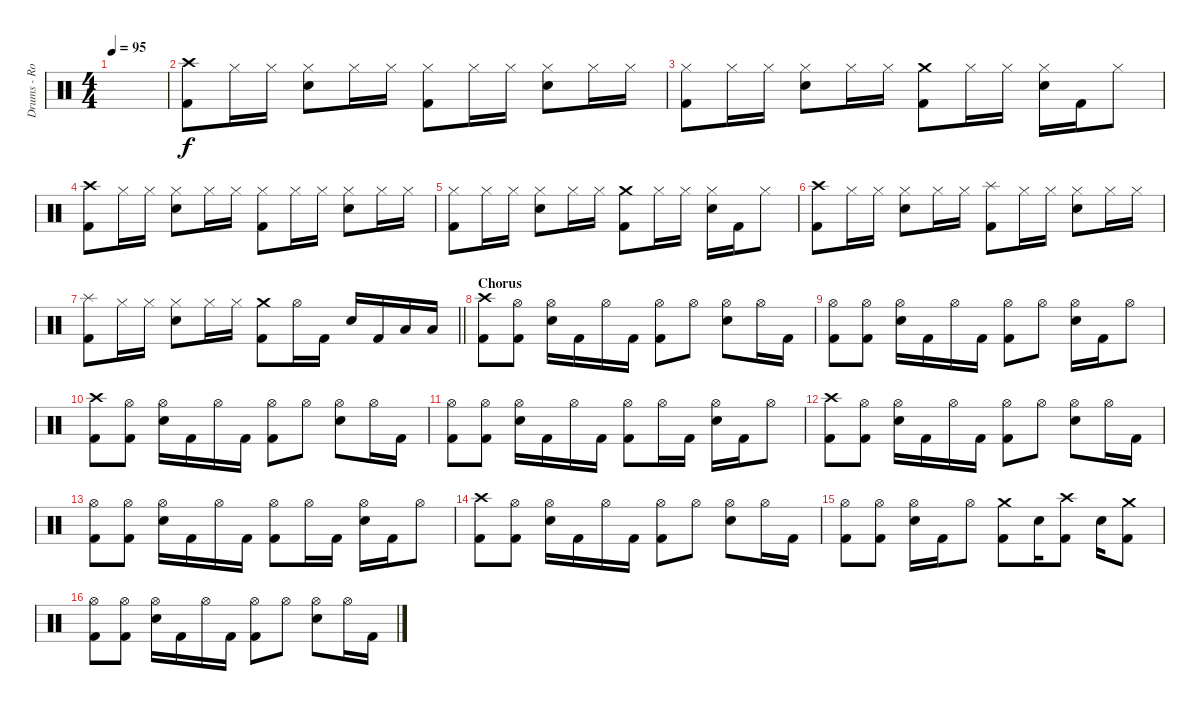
\track ("Drums - Rob Bourdon" "Drums - Ro") {instrument percussion}
\staff {score}
\articulation defaults
\ts (4 4)
\tempo 95
\clef neutral
\ks c
|
("Crash high (hit)" "Kick (hit) 2").8 "Hi-Hat (closed)".16 "Hi-Hat (closed)".16 ("Hi-Hat (closed)" "Snare (hit) 2").8 "Hi-Hat (closed)".16 "Hi-Hat (closed)".16 ("Hi-Hat (closed)" "Kick (hit) 2").8 "Hi-Hat (closed)".16 "Hi-Hat (closed)".16 ("Hi-Hat (closed)" "Snare (hit) 2").8 "Hi-Hat (closed)".16 "Hi-Hat (closed)".16 |
("Hi-Hat (closed)" "Kick (hit) 2").8 "Hi-Hat (closed)".16 "Hi-Hat (closed)".16 ("Hi-Hat (closed)" "Snare (hit) 2").8 "Hi-Hat (closed)".16 "Hi-Hat (closed)".16 ("Crash medium (hit)" "Kick (hit) 2").8 "Hi-Hat (closed)".16 "Hi-Hat (closed)".16 ("Hi-Hat (closed)" "Snare (hit) 2").16 "Kick (hit) 2".16 "Hi-Hat (closed)".8 |
("Crash high (hit)" "Kick (hit) 2").8 "Hi-Hat (closed)".16 "Hi-Hat (closed)".16 ("Hi-Hat (closed)" "Snare (hit) 2").8 "Hi-Hat (closed)".16 "Hi-Hat (closed)".16 ("Hi-Hat (closed)" "Kick (hit) 2").8 "Hi-Hat (closed)".16 "Hi-Hat (closed)".16 ("Hi-Hat (closed)" "Snare (hit) 2").8 "Hi-Hat (closed)".16 "Hi-Hat (closed)".16 |
("Hi-Hat (closed)" "Kick (hit) 2").8 "Hi-Hat (closed)".16 "Hi-Hat (closed)".16 ("Hi-Hat (closed)" "Snare (hit) 2").8 "Hi-Hat (closed)".16 "Hi-Hat (closed)".16 ("Crash medium (hit)" "Kick (hit) 2").8 "Hi-Hat (closed)".16 "Hi-Hat (closed)".16 ("Hi-Hat (closed)" "Snare (hit) 2").16 "Kick (hit) 2".16 "Hi-Hat (closed)".8 |
("Crash high (hit)" "Kick (hit) 2").8 "Hi-Hat (closed)".16 "Hi-Hat (closed)".16 ("Hi-Hat (closed)" "Snare (hit) 2").8 "Hi-Hat (closed)".16 "Hi-Hat (closed)".16 ("Splash (hit)" "Kick (hit) 2").8 "Hi-Hat (closed)".16 "Hi-Hat (closed)".16 ("Hi-Hat (closed)" "Snare (hit) 2").8 "Hi-Hat (closed)".16 "Hi-Hat (closed)".16 |
\barLineRight lightlight
("Splash (hit)" "Kick (hit) 2").8 "Hi-Hat (closed)".16 "Hi-Hat (closed)".16 ("Hi-Hat (closed)" "Snare (hit) 2").8 "Hi-Hat (closed)".16 "Hi-Hat (closed)".16 ("Crash medium (hit)" "Kick (hit) 2").8 "Hi-Hat (open)".16 "Kick (hit) 2".16 "Snare (hit) 2".16 "Kick (hit) 2".16 "Low Tom (hit)".16 "Low Tom (hit)".16 |
\section ("" "Chorus")
("Crash high (hit)" "Kick (hit) 2").8 ("Hi-Hat (open)" "Kick (hit) 2").8 ("Hi-Hat (open)" "Snare (hit) 2").16 "Kick (hit) 2".16 "Hi-Hat (open)".16 "Kick (hit) 2".16 ("Hi-Hat (open)" "Kick (hit) 2").8 "Hi-Hat (open)".8 ("Hi-Hat (open)" "Snare (hit) 2").8 "Hi-Hat (open)".16 "Kick (hit) 2".16 |
("Hi-Hat (open)" "Kick (hit) 2").8 ("Hi-Hat (open)" "Kick (hit) 2").8 ("Hi-Hat (open)" "Snare (hit) 2").16 "Kick (hit) 2".16 "Hi-Hat (open)".16 "Kick (hit) 2".16 ("Hi-Hat (open)" "Kick (hit) 2").8 "Hi-Hat (open)".8 ("Hi-Hat (open)" "Snare (hit) 2").16 "Kick (hit) 2".16 "Hi-Hat (open)".8 |
("Crash high (hit)" "Kick (hit) 2").8 ("Hi-Hat (open)" "Kick (hit) 2").8 ("Hi-Hat (open)" "Snare (hit) 2").16 "Kick (hit) 2".16 "Hi-Hat (open)".16 "Kick (hit) 2".16 ("Hi-Hat (open)" "Kick (hit) 2").8 "Hi-Hat (open)".8 ("Hi-Hat (open)" "Snare (hit) 2").8 "Hi-Hat (open)".16 "Kick (hit) 2".16 |
("Hi-Hat (open)" "Kick (hit) 2").8 ("Hi-Hat (open)" "Kick (hit) 2").8 ("Hi-Hat (open)" "Snare (hit) 2").16 "Kick (hit) 2".16 "Hi-Hat (open)".16 "Kick (hit) 2".16 ("Hi-Hat (open)" "Kick (hit) 2").8 "Hi-Hat (open)".16 "Kick (hit) 2".16 ("Hi-Hat (open)" "Snare (hit) 2").16 "Kick (hit) 2".16 "Hi-Hat (open)".8 |
("Crash high (hit)" "Kick (hit) 2").8 ("Hi-Hat (open)" "Kick (hit) 2").8 ("Hi-Hat (open)" "Snare (hit) 2").16 "Kick (hit) 2".16 "Hi-Hat (open)".16 "Kick (hit) 2".16 ("Hi-Hat (open)" "Kick (hit) 2").8 "Hi-Hat (open)".8 ("Hi-Hat (open)" "Snare (hit) 2").8 "Hi-Hat (open)".16 "Kick (hit) 2".16 |
("Hi-Hat (open)" "Kick (hit) 2").8 ("Hi-Hat (open)" "Kick (hit) 2").8 ("Hi-Hat (open)" "Snare (hit) 2").16 "Kick (hit) 2".16 "Hi-Hat (open)".16 "Kick (hit) 2".16 ("Hi-Hat (open)" "Kick (hit) 2").8 "Hi-Hat (open)".16 "Kick (hit) 2".16 ("Hi-Hat (open)" "Snare (hit) 2").16 "Kick (hit) 2".16 "Hi-Hat (open)".8 |
("Crash high (hit)" "Kick (hit) 2").8 ("Hi-Hat (open)" "Kick (hit) 2").8 ("Hi-Hat (open)" "Snare (hit) 2").16 "Kick (hit) 2".16 "Hi-Hat (open)".16 "Kick (hit) 2".16 ("Hi-Hat (open)" "Kick (hit) 2").8 "Hi-Hat (open)".8 ("Hi-Hat (open)" "Snare (hit) 2").8 "Hi-Hat (open)".16 "Kick (hit) 2".16 |
("Hi-Hat (open)" "Kick (hit) 2").8 ("Hi-Hat (open)" "Kick (hit) 2").8 ("Hi-Hat (open)" "Snare (hit) 2").16 "Kick (hit) 2".16 "Hi-Hat (open)".8 ("Crash medium (hit)" "Kick (hit) 2").8 "Snare (hit) 2".16 ("Crash high (hit)" "Kick (hit) 2").8 "Snare (hit) 2".16 ("Crash medium (hit)" "Kick (hit) 2").8 |
("Hi-Hat (open)" "Kick (hit) 2").8 ("Hi-Hat (open)" "Kick (hit) 2").8 ("Hi-Hat (open)" "Snare (hit) 2").16 "Kick (hit) 2".16 "Hi-Hat (open)".16 "Kick (hit) 2".16 ("Hi-Hat (open)" "Kick (hit) 2").8 "Hi-Hat (open)".8 ("Hi-Hat (open)" "Snare (hit) 2").8 "Hi-Hat (open)".16 "Kick (hit) 2".16
